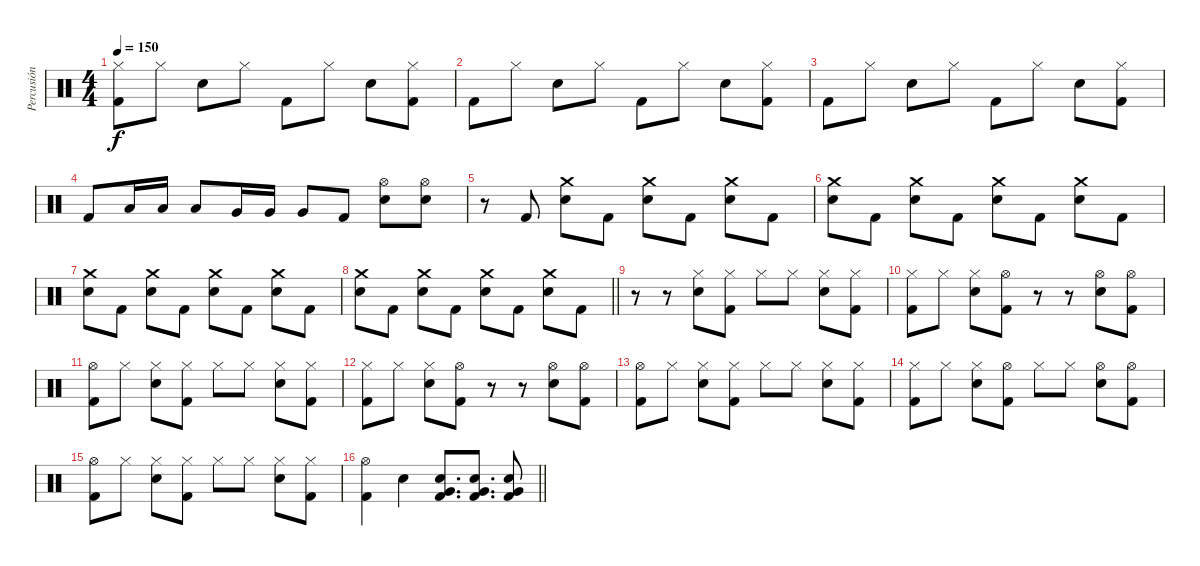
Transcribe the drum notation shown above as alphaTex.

\track ("Percusión" "Percusión") {instrument percussion}
\staff {score}
\articulation defaults
\ts (4 4)
\tempo 150
\clef neutral
\ks c
("Hi-Hat (closed)" "Kick (hit) 2").8{dy f} "Hi-Hat (closed)".8 "Electric Snare (hit)".8 "Hi-Hat (closed)".8 "Kick (hit) 2".8 "Hi-Hat (closed)".8 "Electric Snare (hit)".8 ("Hi-Hat (closed)" "Kick (hit) 2").8 |
"Kick (hit) 2".8 "Hi-Hat (closed)".8 "Electric Snare (hit)".8 "Hi-Hat (closed)".8 "Kick (hit) 2".8 "Hi-Hat (closed)".8 "Electric Snare (hit)".8 ("Hi-Hat (closed)" "Kick (hit) 2").8 |
"Kick (hit) 2".8 "Hi-Hat (closed)".8 "Electric Snare (hit)".8 "Hi-Hat (closed)".8 "Kick (hit) 2".8 "Hi-Hat (closed)".8 "Electric Snare (hit)".8 ("Hi-Hat (closed)" "Kick (hit) 2").8 |
"Kick (hit) 2".8 "Low Tom (hit)".16 "Low Tom (hit)".16 "Low Tom (hit)".8 "Very Low Tom (hit)".16 "Very Low Tom (hit)".16 "Very Low Tom (hit)".8 "Kick (hit) 2".8 ("Hi-Hat (open)" "Electric Snare (hit)").8 ("Hi-Hat (open)" "Electric Snare (hit)").8 |
r.8 "Kick (hit) 2".8 ("Crash medium (hit)" "Electric Snare (hit)").8 "Kick (hit) 2".8 ("Crash medium (hit)" "Electric Snare (hit)").8 "Kick (hit) 2".8 ("Crash medium (hit)" "Electric Snare (hit)").8 "Kick (hit) 2".8 |
("Crash medium (hit)" "Electric Snare (hit)").8 "Kick (hit) 2".8 ("Crash medium (hit)" "Electric Snare (hit)").8 "Kick (hit) 2".8 ("Crash medium (hit)" "Electric Snare (hit)").8 "Kick (hit) 2".8 ("Crash medium (hit)" "Electric Snare (hit)").8 "Kick (hit) 2".8 |
("Crash medium (hit)" "Electric Snare (hit)").8 "Kick (hit) 2".8 ("Crash medium (hit)" "Electric Snare (hit)").8 "Kick (hit) 2".8 ("Crash medium (hit)" "Electric Snare (hit)").8 "Kick (hit) 2".8 ("Crash medium (hit)" "Electric Snare (hit)").8 "Kick (hit) 2".8 |
\barLineRight lightlight
("Crash medium (hit)" "Electric Snare (hit)").8 "Kick (hit) 2".8 ("Crash medium (hit)" "Electric Snare (hit)").8 "Kick (hit) 2".8 ("Crash medium (hit)" "Electric Snare (hit)").8 "Kick (hit) 2".8 ("Crash medium (hit)" "Electric Snare (hit)").8 "Kick (hit) 2".8 |
r.8 r.8 ("Hi-Hat (closed)" "Electric Snare (hit)").8 ("Hi-Hat (closed)" "Kick (hit) 2").8 "Hi-Hat (closed)".8 "Hi-Hat (closed)".8 ("Hi-Hat (closed)" "Electric Snare (hit)").8 ("Hi-Hat (closed)" "Kick (hit) 2").8 |
("Hi-Hat (closed)" "Kick (hit) 2").8 "Hi-Hat (closed)".8 ("Hi-Hat (closed)" "Electric Snare (hit)").8 ("Hi-Hat (open)" "Kick (hit) 2").8 r.8 r.8 ("Hi-Hat (open)" "Electric Snare (hit)").8 ("Hi-Hat (open)" "Kick (hit) 2").8 |
("Hi-Hat (open)" "Kick (hit) 2").8 "Hi-Hat (closed)".8 ("Hi-Hat (closed)" "Electric Snare (hit)").8 ("Hi-Hat (closed)" "Kick (hit) 2").8 "Hi-Hat (closed)".8 "Hi-Hat (closed)".8 ("Hi-Hat (closed)" "Electric Snare (hit)").8 ("Hi-Hat (closed)" "Kick (hit) 2").8 |
("Hi-Hat (closed)" "Kick (hit) 2").8 "Hi-Hat (closed)".8 ("Hi-Hat (closed)" "Electric Snare (hit)").8 ("Hi-Hat (open)" "Kick (hit) 2").8 r.8 r.8 ("Hi-Hat (open)" "Electric Snare (hit)").8 ("Hi-Hat (open)" "Kick (hit) 2").8 |
("Hi-Hat (open)" "Kick (hit) 2").8 "Hi-Hat (closed)".8 ("Hi-Hat (closed)" "Electric Snare (hit)").8 ("Hi-Hat (closed)" "Kick (hit) 2").8 "Hi-Hat (closed)".8 "Hi-Hat (closed)".8 ("Hi-Hat (closed)" "Electric Snare (hit)").8 ("Hi-Hat (closed)" "Kick (hit) 2").8 |
("Hi-Hat (closed)" "Kick (hit) 2").8 "Hi-Hat (closed)".8 ("Hi-Hat (closed)" "Electric Snare (hit)").8 ("Hi-Hat (open)" "Kick (hit) 2").8 "Hi-Hat (closed)".8 "Hi-Hat (closed)".8 ("Hi-Hat (open)" "Electric Snare (hit)").8 ("Hi-Hat (open)" "Kick (hit) 2").8 |
("Hi-Hat (open)" "Kick (hit) 2").8 "Hi-Hat (closed)".8 ("Hi-Hat (closed)" "Electric Snare (hit)").8 ("Hi-Hat (closed)" "Kick (hit) 2").8 "Hi-Hat (closed)".8 "Hi-Hat (closed)".8 ("Hi-Hat (closed)" "Electric Snare (hit)").8 ("Hi-Hat (closed)" "Kick (hit) 2").8 |
\barLineRight lightlight
("Hi-Hat (open)" "Kick (hit) 2").4 "Electric Snare (hit)".4 ("Very Low Tom (hit)" "Electric Snare (hit)" "Kick (hit) 2").8{d} ("Very Low Tom (hit)" "Electric Snare (hit)" "Kick (hit) 2").8{d} ("Very Low Tom (hit)" "Electric Snare (hit)" "Kick (hit) 2").8
